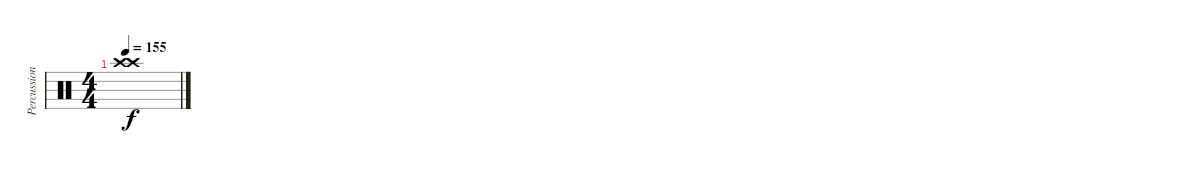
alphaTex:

\track ("Percussion" "Percussion") {instrument percussion}
\staff {score}
\articulation defaults
\ts (4 4)
\tempo 155
\clef neutral
\ks c
("Crash high (hit)" "Crash high (hit)").1{dy f}
